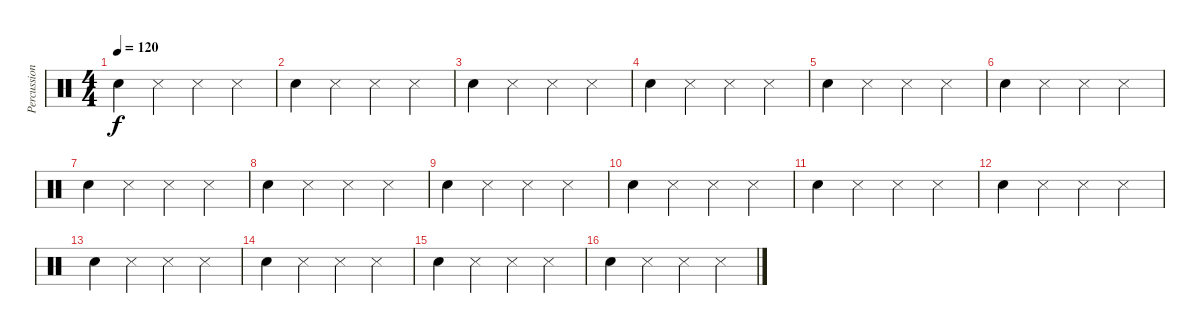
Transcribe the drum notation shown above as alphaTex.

\track ("Percussion" "Percussion") {instrument percussion}
\staff {score}
\articulation defaults
\ts (4 4)
\tempo 120
\clef neutral
\ks c "Snare (hit) 2".4{dy f} "Snare (side stick) 3".4 "Snare (side stick) 3".4 "Snare (side stick) 3".4
|
"Snare (hit) 2".4 "Snare (side stick) 3".4 "Snare (side stick) 3".4 "Snare (side stick) 3".4 |
"Snare (hit) 2".4 "Snare (side stick) 3".4 "Snare (side stick) 3".4 "Snare (side stick) 3".4 |
"Snare (hit) 2".4 "Snare (side stick) 3".4 "Snare (side stick) 3".4 "Snare (side stick) 3".4 |
"Snare (hit) 2".4 "Snare (side stick) 3".4 "Snare (side stick) 3".4 "Snare (side stick) 3".4 |
"Snare (hit) 2".4 "Snare (side stick) 3".4 "Snare (side stick) 3".4 "Snare (side stick) 3".4 |
"Snare (hit) 2".4 "Snare (side stick) 3".4 "Snare (side stick) 3".4 "Snare (side stick) 3".4 |
"Snare (hit) 2".4 "Snare (side stick) 3".4 "Snare (side stick) 3".4 "Snare (side stick) 3".4 |
"Snare (hit) 2".4 "Snare (side stick) 3".4 "Snare (side stick) 3".4 "Snare (side stick) 3".4 |
"Snare (hit) 2".4 "Snare (side stick) 3".4 "Snare (side stick) 3".4 "Snare (side stick) 3".4 |
"Snare (hit) 2".4 "Snare (side stick) 3".4 "Snare (side stick) 3".4 "Snare (side stick) 3".4 |
"Snare (hit) 2".4 "Snare (side stick) 3".4 "Snare (side stick) 3".4 "Snare (side stick) 3".4 |
"Snare (hit) 2".4 "Snare (side stick) 3".4 "Snare (side stick) 3".4 "Snare (side stick) 3".4 |
"Snare (hit) 2".4 "Snare (side stick) 3".4 "Snare (side stick) 3".4 "Snare (side stick) 3".4 |
"Snare (hit) 2".4 "Snare (side stick) 3".4 "Snare (side stick) 3".4 "Snare (side stick) 3".4 |
"Snare (hit) 2".4 "Snare (side stick) 3".4 "Snare (side stick) 3".4 "Snare (side stick) 3".4
